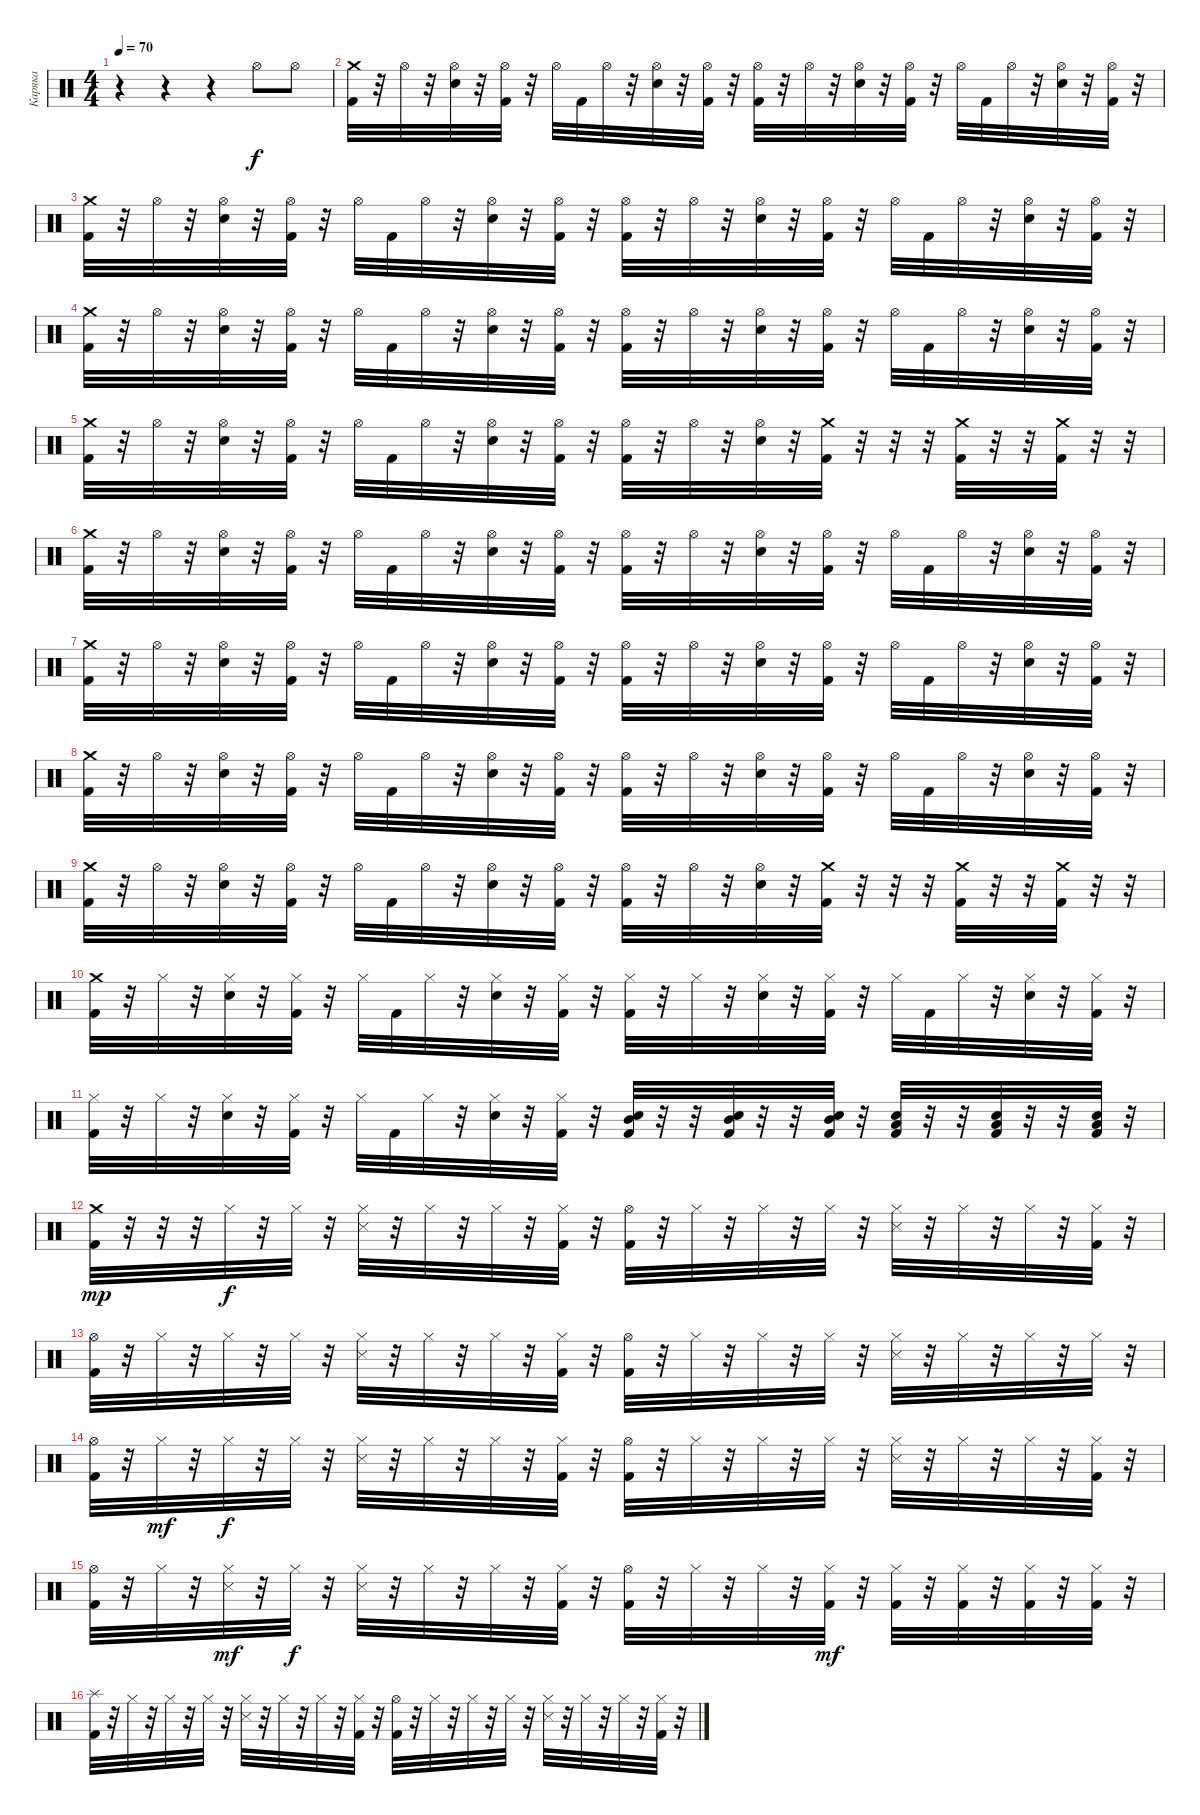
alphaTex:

\track ("Каряка" "Каряка") {instrument percussion}
\staff {score}
\articulation defaults
\ts (4 4)
\tempo 70
\clef neutral
\ks c
r.4{dy mp} r.4 r.4 "Hi-Hat (open)".8{dy f} "Hi-Hat (open)".8 |
("Crash medium (hit)" "Kick (hit) 2").32 r.32 "Hi-Hat (open)".32 r.32 ("Hi-Hat (open)" "Snare (hit) 2").32 r.32 ("Hi-Hat (open)" "Kick (hit) 2").32 r.32 "Hi-Hat (open)".32 "Kick (hit) 2".32 "Hi-Hat (open)".32 r.32 ("Hi-Hat (open)" "Snare (hit) 2").32 r.32 ("Hi-Hat (open)" "Kick (hit) 2").32 r.32 ("Hi-Hat (open)" "Kick (hit) 2").32 r.32 "Hi-Hat (open)".32 r.32 ("Hi-Hat (open)" "Snare (hit) 2").32 r.32 ("Hi-Hat (open)" "Kick (hit) 2").32 r.32 "Hi-Hat (open)".32 "Kick (hit) 2".32 "Hi-Hat (open)".32 r.32 ("Hi-Hat (open)" "Snare (hit) 2").32 r.32 ("Hi-Hat (open)" "Kick (hit) 2").32 r.32 |
("Crash medium (hit)" "Kick (hit) 2").32 r.32 "Hi-Hat (open)".32 r.32 ("Hi-Hat (open)" "Snare (hit) 2").32 r.32 ("Hi-Hat (open)" "Kick (hit) 2").32 r.32 "Hi-Hat (open)".32 "Kick (hit) 2".32 "Hi-Hat (open)".32 r.32 ("Hi-Hat (open)" "Snare (hit) 2").32 r.32 ("Hi-Hat (open)" "Kick (hit) 2").32 r.32 ("Hi-Hat (open)" "Kick (hit) 2").32 r.32 "Hi-Hat (open)".32 r.32 ("Hi-Hat (open)" "Snare (hit) 2").32 r.32 ("Hi-Hat (open)" "Kick (hit) 2").32 r.32 "Hi-Hat (open)".32 "Kick (hit) 2".32 "Hi-Hat (open)".32 r.32 ("Hi-Hat (open)" "Snare (hit) 2").32 r.32 ("Hi-Hat (open)" "Kick (hit) 2").32 r.32 |
("Crash medium (hit)" "Kick (hit) 2").32 r.32 "Hi-Hat (open)".32 r.32 ("Hi-Hat (open)" "Snare (hit) 2").32 r.32 ("Hi-Hat (open)" "Kick (hit) 2").32 r.32 "Hi-Hat (open)".32 "Kick (hit) 2".32 "Hi-Hat (open)".32 r.32 ("Hi-Hat (open)" "Snare (hit) 2").32 r.32 ("Hi-Hat (open)" "Kick (hit) 2").32 r.32 ("Hi-Hat (open)" "Kick (hit) 2").32 r.32 "Hi-Hat (open)".32 r.32 ("Hi-Hat (open)" "Snare (hit) 2").32 r.32 ("Hi-Hat (open)" "Kick (hit) 2").32 r.32 "Hi-Hat (open)".32 "Kick (hit) 2".32 "Hi-Hat (open)".32 r.32 ("Hi-Hat (open)" "Snare (hit) 2").32 r.32 ("Hi-Hat (open)" "Kick (hit) 2").32 r.32 |
("Crash medium (hit)" "Kick (hit) 2").32 r.32 "Hi-Hat (open)".32 r.32 ("Hi-Hat (open)" "Snare (hit) 2").32 r.32 ("Hi-Hat (open)" "Kick (hit) 2").32 r.32 "Hi-Hat (open)".32 "Kick (hit) 2".32 "Hi-Hat (open)".32 r.32 ("Hi-Hat (open)" "Snare (hit) 2").32 r.32 ("Hi-Hat (open)" "Kick (hit) 2").32 r.32 ("Hi-Hat (open)" "Kick (hit) 2").32 r.32 "Hi-Hat (open)".32 r.32 ("Hi-Hat (open)" "Snare (hit) 2").32 r.32 ("Crash medium (hit)" "Kick (hit) 2").32 r.32 r.32 r.32 ("Crash medium (hit)" "Kick (hit) 2").32 r.32 r.32 ("Crash medium (hit)" "Kick (hit) 2").32 r.32 r.32 |
("Crash medium (hit)" "Kick (hit) 2").32 r.32 "Hi-Hat (open)".32 r.32 ("Hi-Hat (open)" "Snare (hit) 2").32 r.32 ("Hi-Hat (open)" "Kick (hit) 2").32 r.32 "Hi-Hat (open)".32 "Kick (hit) 2".32 "Hi-Hat (open)".32 r.32 ("Hi-Hat (open)" "Snare (hit) 2").32 r.32 ("Hi-Hat (open)" "Kick (hit) 2").32 r.32 ("Hi-Hat (open)" "Kick (hit) 2").32 r.32 "Hi-Hat (open)".32 r.32 ("Hi-Hat (open)" "Snare (hit) 2").32 r.32 ("Hi-Hat (open)" "Kick (hit) 2").32 r.32 "Hi-Hat (open)".32 "Kick (hit) 2".32 "Hi-Hat (open)".32 r.32 ("Hi-Hat (open)" "Snare (hit) 2").32 r.32 ("Hi-Hat (open)" "Kick (hit) 2").32 r.32 |
("Crash medium (hit)" "Kick (hit) 2").32 r.32 "Hi-Hat (open)".32 r.32 ("Hi-Hat (open)" "Snare (hit) 2").32 r.32 ("Hi-Hat (open)" "Kick (hit) 2").32 r.32 "Hi-Hat (open)".32 "Kick (hit) 2".32 "Hi-Hat (open)".32 r.32 ("Hi-Hat (open)" "Snare (hit) 2").32 r.32 ("Hi-Hat (open)" "Kick (hit) 2").32 r.32 ("Hi-Hat (open)" "Kick (hit) 2").32 r.32 "Hi-Hat (open)".32 r.32 ("Hi-Hat (open)" "Snare (hit) 2").32 r.32 ("Hi-Hat (open)" "Kick (hit) 2").32 r.32 "Hi-Hat (open)".32 "Kick (hit) 2".32 "Hi-Hat (open)".32 r.32 ("Hi-Hat (open)" "Snare (hit) 2").32 r.32 ("Hi-Hat (open)" "Kick (hit) 2").32 r.32 |
("Crash medium (hit)" "Kick (hit) 2").32 r.32 "Hi-Hat (open)".32 r.32 ("Hi-Hat (open)" "Snare (hit) 2").32 r.32 ("Hi-Hat (open)" "Kick (hit) 2").32 r.32 "Hi-Hat (open)".32 "Kick (hit) 2".32 "Hi-Hat (open)".32 r.32 ("Hi-Hat (open)" "Snare (hit) 2").32 r.32 ("Hi-Hat (open)" "Kick (hit) 2").32 r.32 ("Hi-Hat (open)" "Kick (hit) 2").32 r.32 "Hi-Hat (open)".32 r.32 ("Hi-Hat (open)" "Snare (hit) 2").32 r.32 ("Hi-Hat (open)" "Kick (hit) 2").32 r.32 "Hi-Hat (open)".32 "Kick (hit) 2".32 "Hi-Hat (open)".32 r.32 ("Hi-Hat (open)" "Snare (hit) 2").32 r.32 ("Hi-Hat (open)" "Kick (hit) 2").32 r.32 |
("Crash medium (hit)" "Kick (hit) 2").32 r.32 "Hi-Hat (open)".32 r.32 ("Hi-Hat (open)" "Snare (hit) 2").32 r.32 ("Hi-Hat (open)" "Kick (hit) 2").32 r.32 "Hi-Hat (open)".32 "Kick (hit) 2".32 "Hi-Hat (open)".32 r.32 ("Hi-Hat (open)" "Snare (hit) 2").32 r.32 ("Hi-Hat (open)" "Kick (hit) 2").32 r.32 ("Hi-Hat (open)" "Kick (hit) 2").32 r.32 "Hi-Hat (open)".32 r.32 ("Hi-Hat (open)" "Snare (hit) 2").32 r.32 ("Crash medium (hit)" "Kick (hit) 2").32 r.32 r.32 r.32 ("Crash medium (hit)" "Kick (hit) 2").32 r.32 r.32 ("Crash medium (hit)" "Kick (hit) 2").32 r.32 r.32 |
("Crash medium (hit)" "Kick (hit) 2").32 r.32 "Hi-Hat (closed)".32 r.32 ("Hi-Hat (closed)" "Snare (hit) 2").32 r.32 ("Hi-Hat (closed)" "Kick (hit) 2").32 r.32 "Hi-Hat (closed)".32 "Kick (hit) 2".32 "Hi-Hat (closed)".32 r.32 ("Hi-Hat (closed)" "Snare (hit) 2").32 r.32 ("Hi-Hat (closed)" "Kick (hit) 2").32 r.32 ("Hi-Hat (closed)" "Kick (hit) 2").32 r.32 "Hi-Hat (closed)".32 r.32 ("Hi-Hat (closed)" "Snare (hit) 2").32 r.32 ("Hi-Hat (closed)" "Kick (hit) 2").32 r.32 "Hi-Hat (closed)".32 "Kick (hit) 2".32 "Hi-Hat (closed)".32 r.32 ("Hi-Hat (closed)" "Snare (hit) 2").32 r.32 ("Hi-Hat (closed)" "Kick (hit) 2").32 r.32 |
("Hi-Hat (closed)" "Kick (hit) 2").32 r.32 "Hi-Hat (closed)".32 r.32 ("Hi-Hat (closed)" "Snare (hit) 2").32 r.32 ("Hi-Hat (closed)" "Kick (hit) 2").32 r.32 "Hi-Hat (closed)".32 "Kick (hit) 2".32 "Hi-Hat (closed)".32 r.32 ("Hi-Hat (closed)" "Snare (hit) 2").32 r.32 ("Hi-Hat (closed)" "Kick (hit) 2").32 r.32 ("Mid Tom (hit)" "Snare (hit) 2" "Kick (hit) 2").32 r.32 r.32 ("Mid Tom (hit)" "Snare (hit) 2" "Kick (hit) 2").32 r.32 r.32 ("Mid Tom (hit)" "Snare (hit) 2" "Kick (hit) 2").32 r.32 ("Low Tom (hit)" "Snare (hit) 2" "Kick (hit) 2").32 r.32 r.32 ("Low Tom (hit)" "Snare (hit) 2" "Kick (hit) 2").32 r.32 r.32 ("Low Tom (hit)" "Snare (hit) 2" "Kick (hit) 2").32 r.32 |
("Crash medium (hit)" "Kick (hit) 2").32{dy mp} r.32 r.32 r.32 "Hi-Hat (closed)".32{dy f} r.32 "Hi-Hat (closed)".32 r.32 ("Hi-Hat (closed)" "Snare (side stick) 3").32 r.32 "Hi-Hat (closed)".32 r.32 "Hi-Hat (closed)".32 r.32 ("Hi-Hat (closed)" "Kick (hit) 2").32 r.32 ("Hi-Hat (open)" "Kick (hit) 2").32 r.32 "Hi-Hat (closed)".32 r.32 "Hi-Hat (closed)".32 r.32 "Hi-Hat (closed)".32 r.32 ("Hi-Hat (closed)" "Snare (side stick) 3").32 r.32 "Hi-Hat (closed)".32 r.32 "Hi-Hat (closed)".32 r.32 ("Hi-Hat (closed)" "Kick (hit) 2").32 r.32 |
("Hi-Hat (open)" "Kick (hit) 2").32 r.32 "Hi-Hat (closed)".32 r.32 "Hi-Hat (closed)".32 r.32 "Hi-Hat (closed)".32 r.32 ("Hi-Hat (closed)" "Snare (side stick) 3").32 r.32 "Hi-Hat (closed)".32 r.32 "Hi-Hat (closed)".32 r.32 ("Hi-Hat (closed)" "Kick (hit) 2").32 r.32 ("Hi-Hat (open)" "Kick (hit) 2").32 r.32 "Hi-Hat (closed)".32 r.32 "Hi-Hat (closed)".32 r.32 "Hi-Hat (closed)".32 r.32 ("Hi-Hat (closed)" "Snare (side stick) 3").32 r.32 "Hi-Hat (closed)".32 r.32 "Hi-Hat (closed)".32 r.32 "Hi-Hat (closed)".32 r.32 |
("Hi-Hat (open)" "Kick (hit) 2").32 r.32 "Hi-Hat (closed)".32{dy mf} r.32 "Hi-Hat (closed)".32{dy f} r.32 "Hi-Hat (closed)".32 r.32 ("Hi-Hat (closed)" "Snare (side stick) 3").32 r.32 "Hi-Hat (closed)".32 r.32 "Hi-Hat (closed)".32 r.32 ("Hi-Hat (closed)" "Kick (hit) 2").32 r.32 ("Hi-Hat (open)" "Kick (hit) 2").32 r.32 "Hi-Hat (closed)".32 r.32 "Hi-Hat (closed)".32 r.32 "Hi-Hat (closed)".32 r.32 ("Hi-Hat (closed)" "Snare (side stick) 3").32 r.32 "Hi-Hat (closed)".32 r.32 "Hi-Hat (closed)".32 r.32 ("Hi-Hat (closed)" "Kick (hit) 2").32 r.32 |
("Hi-Hat (open)" "Kick (hit) 2").32 r.32 "Hi-Hat (closed)".32 r.32 ("Hi-Hat (closed)" "Snare (side stick) 3").32{dy mf} r.32 "Hi-Hat (closed)".32{dy f} r.32 ("Hi-Hat (closed)" "Snare (side stick) 3").32 r.32 "Hi-Hat (closed)".32 r.32 "Hi-Hat (closed)".32 r.32 ("Hi-Hat (closed)" "Kick (hit) 2").32 r.32 ("Hi-Hat (open)" "Kick (hit) 2").32 r.32 "Hi-Hat (closed)".32 r.32 "Hi-Hat (closed)".32 r.32 ("Hi-Hat (closed)" "Kick (hit) 2").32{dy mf} r.32 ("Hi-Hat (closed)" "Kick (hit) 2").32 r.32 ("Hi-Hat (closed)" "Kick (hit) 2").32 r.32 ("Hi-Hat (closed)" "Kick (hit) 2").32 r.32 ("Hi-Hat (closed)" "Kick (hit) 2").32 r.32 |
("Splash (hit)" "Kick (hit) 2").32 r.32 "Hi-Hat (closed)".32 r.32 "Hi-Hat (closed)".32 r.32 "Hi-Hat (closed)".32 r.32 ("Hi-Hat (closed)" "Snare (side stick) 3").32 r.32 "Hi-Hat (closed)".32 r.32 "Hi-Hat (closed)".32 r.32 ("Hi-Hat (closed)" "Kick (hit) 2").32 r.32 ("Hi-Hat (open)" "Kick (hit) 2").32 r.32 "Hi-Hat (closed)".32 r.32 "Hi-Hat (closed)".32 r.32 "Hi-Hat (closed)".32 r.32 ("Hi-Hat (closed)" "Snare (side stick) 3").32 r.32 "Hi-Hat (closed)".32 r.32 "Hi-Hat (closed)".32 r.32 ("Hi-Hat (closed)" "Kick (hit) 2").32 r.32
